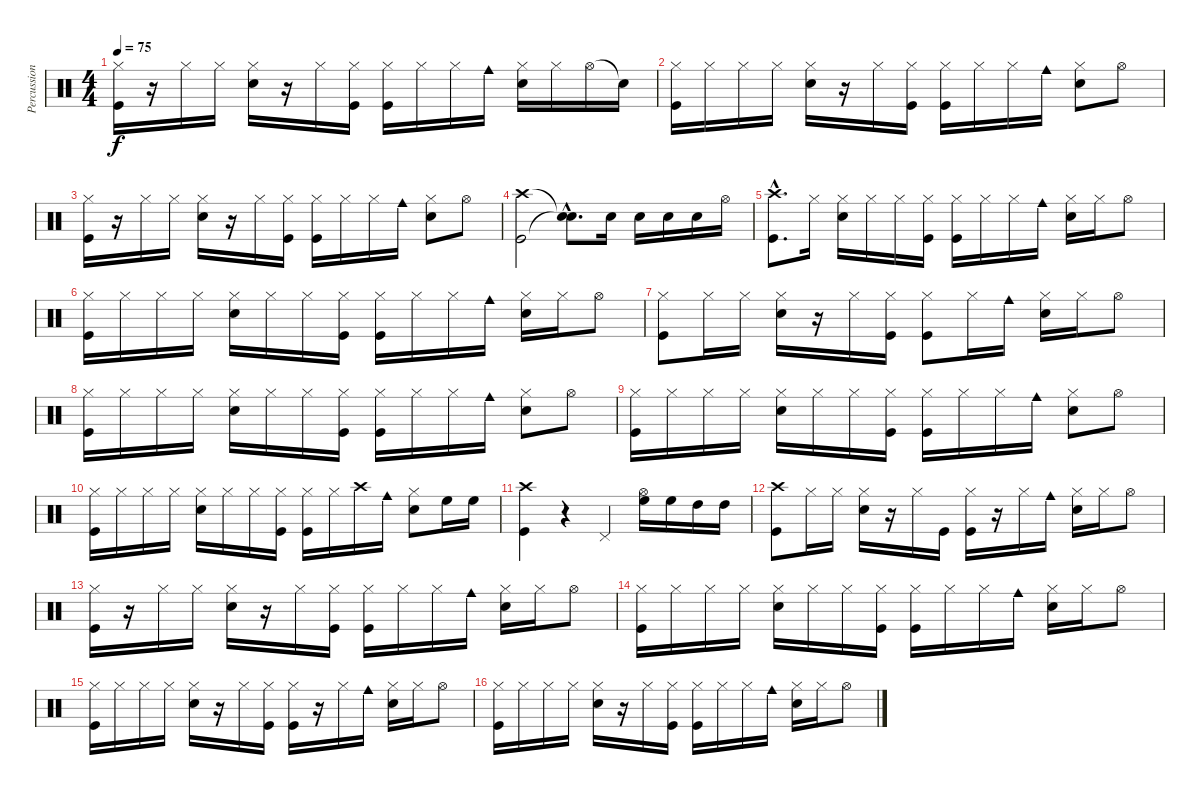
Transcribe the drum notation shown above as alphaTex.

\track ("Percussions" "Percussion") {instrument percussion}
\staff {score}
\articulation defaults
\ts (4 4)
\tempo 75
\clef neutral
\ks c
("Hi-Hat (closed)" "Kick (hit)").16{dy f} r.16 "Hi-Hat (closed)".16 "Hi-Hat (closed)".16 ("Hi-Hat (closed)" "Electric Snare (hit)").16 r.16 "Hi-Hat (closed)".16 ("Hi-Hat (closed)" "Kick (hit)").16 ("Hi-Hat (closed)" "Kick (hit)").16 "Hi-Hat (closed)".16 "Hi-Hat (closed)".16 "Cowbell medium (hit)".16 ("Hi-Hat (closed)" "Electric Snare (hit)").16 "Hi-Hat (closed)".16 "Hi-Hat (open)".16 "Snare (hit)"{t}.16 |
("Hi-Hat (closed)" "Kick (hit)").16 "Hi-Hat (closed)".16 "Hi-Hat (closed)".16 "Hi-Hat (closed)".16 ("Hi-Hat (closed)" "Electric Snare (hit)").16 r.16 "Hi-Hat (closed)".16 ("Hi-Hat (closed)" "Kick (hit)").16 ("Hi-Hat (closed)" "Kick (hit)").16 "Hi-Hat (closed)".16 "Hi-Hat (closed)".16 "Cowbell medium (hit)".16 ("Hi-Hat (closed)" "Electric Snare (hit)").8 "Hi-Hat (open)".8 |
("Hi-Hat (closed)" "Kick (hit)").16 r.16 "Hi-Hat (closed)".16 "Hi-Hat (closed)".16 ("Hi-Hat (closed)" "Electric Snare (hit)").16 r.16 "Hi-Hat (closed)".16 ("Hi-Hat (closed)" "Kick (hit)").16 ("Hi-Hat (closed)" "Kick (hit)").16 "Hi-Hat (closed)".16 "Hi-Hat (closed)".16 "Cowbell medium (hit)".16 ("Hi-Hat (closed)" "Electric Snare (hit)").8 "Hi-Hat (open)".8 |
("Crash high (hit)" "Kick (hit)").2 ("Snare (hit)"{hac t} "Snare (hit)"{hac t}).8{d} "Electric Snare (hit)".16 "Electric Snare (hit)".16 "Electric Snare (hit)".16 "Electric Snare (hit)".16 "Hi-Hat (open)".16 |
("Crash high (hit)"{hac} "Kick (hit)"{hac}).8{d} "Hi-Hat (closed)".16 ("Hi-Hat (closed)" "Electric Snare (hit)").16 "Hi-Hat (closed)".16 "Hi-Hat (closed)".16 ("Hi-Hat (closed)" "Kick (hit)").16 ("Hi-Hat (closed)" "Kick (hit)").16 "Hi-Hat (closed)".16 "Hi-Hat (closed)".16 "Cowbell medium (hit)".16 ("Hi-Hat (closed)" "Electric Snare (hit)").16 "Hi-Hat (closed)".16 "Hi-Hat (open)".8 |
("Hi-Hat (closed)" "Kick (hit)").16 "Hi-Hat (closed)".16 "Hi-Hat (closed)".16 "Hi-Hat (closed)".16 ("Hi-Hat (closed)" "Electric Snare (hit)").16 "Hi-Hat (closed)".16 "Hi-Hat (closed)".16 ("Hi-Hat (closed)" "Kick (hit)").16 ("Hi-Hat (closed)" "Kick (hit)").16 "Hi-Hat (closed)".16 "Hi-Hat (closed)".16 "Cowbell medium (hit)".16 ("Hi-Hat (closed)" "Electric Snare (hit)").16 "Hi-Hat (closed)".16 "Hi-Hat (open)".8 |
("Hi-Hat (closed)" "Kick (hit)").8 "Hi-Hat (closed)".16 "Hi-Hat (closed)".16 ("Hi-Hat (closed)" "Electric Snare (hit)").16 r.16 "Hi-Hat (closed)".16 ("Hi-Hat (closed)" "Kick (hit)").16 ("Hi-Hat (closed)" "Kick (hit)").8 "Hi-Hat (closed)".16 "Cowbell medium (hit)".16 ("Hi-Hat (closed)" "Electric Snare (hit)").16 "Hi-Hat (closed)".16 "Hi-Hat (open)".8 |
("Hi-Hat (closed)" "Kick (hit)").16 "Hi-Hat (closed)".16 "Hi-Hat (closed)".16 "Hi-Hat (closed)".16 ("Hi-Hat (closed)" "Electric Snare (hit)").16 "Hi-Hat (closed)".16 "Hi-Hat (closed)".16 ("Hi-Hat (closed)" "Kick (hit)").16 ("Hi-Hat (closed)" "Kick (hit)").16 "Hi-Hat (closed)".16 "Hi-Hat (closed)".16 "Cowbell medium (hit)".16 ("Hi-Hat (closed)" "Electric Snare (hit)").8 "Hi-Hat (open)".8 |
("Hi-Hat (closed)" "Kick (hit)").16 "Hi-Hat (closed)".16 "Hi-Hat (closed)".16 "Hi-Hat (closed)".16 ("Hi-Hat (closed)" "Electric Snare (hit)").16 "Hi-Hat (closed)".16 "Hi-Hat (closed)".16 ("Hi-Hat (closed)" "Kick (hit)").16 ("Hi-Hat (closed)" "Kick (hit)").16 "Hi-Hat (closed)".16 "Hi-Hat (closed)".16 "Cowbell medium (hit)".16 ("Hi-Hat (closed)" "Electric Snare (hit)").8 "Hi-Hat (open)".8 |
("Hi-Hat (closed)" "Kick (hit)").16 "Hi-Hat (closed)".16 "Hi-Hat (closed)".16 "Hi-Hat (closed)".16 ("Hi-Hat (closed)" "Electric Snare (hit)").16 "Hi-Hat (closed)".16 "Hi-Hat (closed)".16 ("Hi-Hat (closed)" "Kick (hit)").16 ("Hi-Hat (closed)" "Kick (hit)").16 "Hi-Hat (closed)".16 "Crash high (hit)".16 "Cowbell medium (hit)".16 ("Hi-Hat (closed)" "Electric Snare (hit)").8 "High Floor Tom (hit)".16 "High Floor Tom (hit)".16 |
("Crash high (hit)" "Kick (hit)").4 r.4 "Pedal Hi-Hat (hit)".4 ("Hi-Hat (open)" "High Floor Tom (hit)").16 "High Floor Tom (hit)".16 "High Tom (hit)".16 "High Tom (hit)".16 |
("Crash high (hit)" "Kick (hit)").8 "Hi-Hat (closed)".16 "Hi-Hat (closed)".16 ("Hi-Hat (closed)" "Electric Snare (hit)").16 r.16 "Hi-Hat (closed)".16 "Kick (hit)".16 ("Hi-Hat (closed)" "Kick (hit)").16 r.16 "Hi-Hat (closed)".16 "Cowbell medium (hit)".16 ("Hi-Hat (closed)" "Electric Snare (hit)").16 "Hi-Hat (closed)".16 "Hi-Hat (open)".8 |
("Hi-Hat (closed)" "Kick (hit)").16 r.16 "Hi-Hat (closed)".16 "Hi-Hat (closed)".16 ("Hi-Hat (closed)" "Electric Snare (hit)").16 r.16 "Hi-Hat (closed)".16 ("Hi-Hat (closed)" "Kick (hit)").16 ("Hi-Hat (closed)" "Kick (hit)").16 "Hi-Hat (closed)".16 "Hi-Hat (closed)".16 "Cowbell medium (hit)".16 ("Hi-Hat (closed)" "Electric Snare (hit)").16 "Hi-Hat (closed)".16 "Hi-Hat (open)".8 |
("Hi-Hat (closed)" "Kick (hit)").16 "Hi-Hat (closed)".16 "Hi-Hat (closed)".16 "Hi-Hat (closed)".16 ("Hi-Hat (closed)" "Electric Snare (hit)").16 "Hi-Hat (closed)".16 "Hi-Hat (closed)".16 ("Hi-Hat (closed)" "Kick (hit)").16 ("Hi-Hat (closed)" "Kick (hit)").16 "Hi-Hat (closed)".16 "Hi-Hat (closed)".16 "Cowbell medium (hit)".16 ("Hi-Hat (closed)" "Electric Snare (hit)").16 "Hi-Hat (closed)".16 "Hi-Hat (open)".8 |
("Hi-Hat (closed)" "Kick (hit)").16 "Hi-Hat (closed)".16 "Hi-Hat (closed)".16 "Hi-Hat (closed)".16 ("Hi-Hat (closed)" "Electric Snare (hit)").16 r.16 "Hi-Hat (closed)".16 ("Hi-Hat (closed)" "Kick (hit)").16 ("Hi-Hat (closed)" "Kick (hit)").16 r.16 "Hi-Hat (closed)".16 "Cowbell medium (hit)".16 ("Hi-Hat (closed)" "Electric Snare (hit)").16 "Hi-Hat (closed)".16 "Hi-Hat (open)".8 |
("Hi-Hat (closed)" "Kick (hit)").16 "Hi-Hat (closed)".16 "Hi-Hat (closed)".16 "Hi-Hat (closed)".16 ("Hi-Hat (closed)" "Electric Snare (hit)").16 r.16 "Hi-Hat (closed)".16 ("Hi-Hat (closed)" "Kick (hit)").16 ("Hi-Hat (closed)" "Kick (hit)").16 "Hi-Hat (closed)".16 "Hi-Hat (closed)".16 "Cowbell medium (hit)".16 ("Hi-Hat (closed)" "Electric Snare (hit)").16 "Hi-Hat (closed)".16 "Hi-Hat (open)".8
